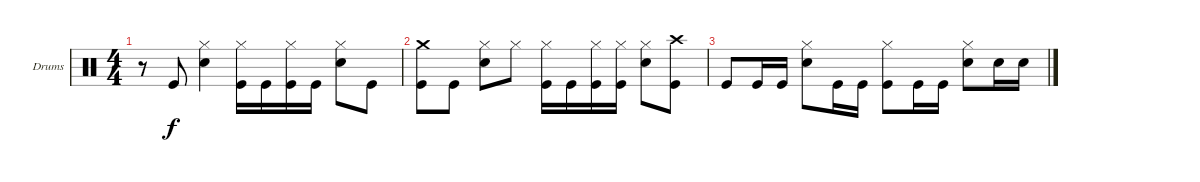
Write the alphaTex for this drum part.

\bracketExtendMode groupsimilarinstruments
\firstSystemTrackNameOrientation horizontal
\otherSystemsTrackNameOrientation horizontal
\track ("Percussion" "Drums") {instrument percussion}
\staff {score}
\articulation defaults
\ts (4 4)
\tempo (142 hide)
\clef neutral
\ks c
r.8{dy f} "Kick (hit)".8 ("Hi-Hat (closed)" "Snare (hit) 2").4 ("Hi-Hat (closed)" "Kick (hit)").16 "Kick (hit)".16 ("Hi-Hat (closed)" "Kick (hit)").16 "Kick (hit)".16 ("Hi-Hat (closed)" "Snare (hit) 2").8 "Kick (hit)".8 |
("Crash medium (hit)" "Kick (hit)").8 "Kick (hit)".8 ("Hi-Hat (closed)" "Snare (hit) 2").8 "Hi-Hat (closed)".8 ("Hi-Hat (closed)" "Kick (hit)").16 "Kick (hit)".16 ("Hi-Hat (closed)" "Kick (hit)").16 ("Hi-Hat (closed)" "Kick (hit)").16 ("Hi-Hat (closed)" "Snare (hit) 2").8 ("Crash high (hit)" "Kick (hit)").8 |
"Kick (hit)".8 "Kick (hit)".16 "Kick (hit)".16 ("Hi-Hat (closed)" "Snare (hit) 2").8 "Kick (hit)".16 "Kick (hit)".16 ("Hi-Hat (closed)" "Kick (hit)").8 "Kick (hit)".16 "Kick (hit)".16 ("Hi-Hat (closed)" "Snare (hit) 2").8 "Snare (hit) 2".16 "Snare (hit) 2".16
